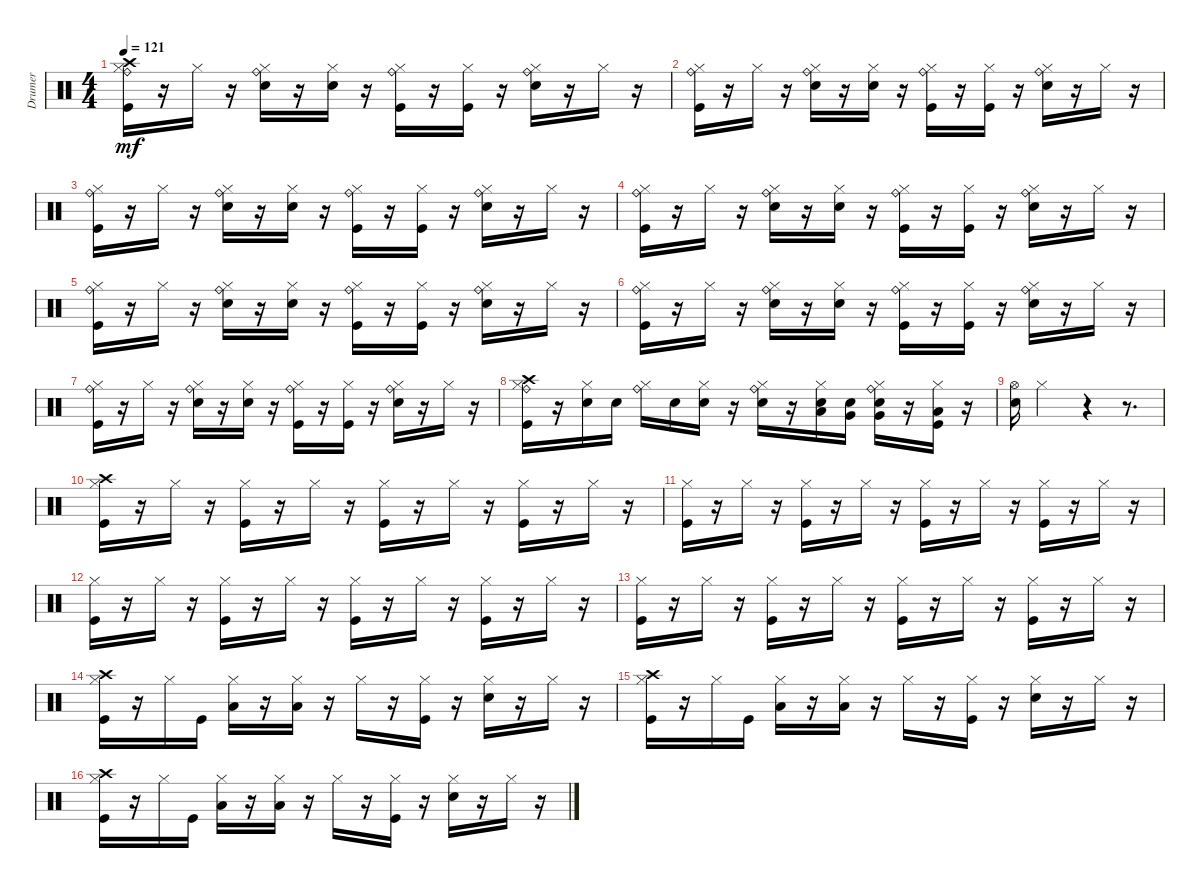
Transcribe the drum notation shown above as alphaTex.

\track ("Drumer" "Drumer") {instrument percussion}
\staff {score}
\articulation defaults
\ts (4 4)
\tempo 121
\clef neutral
\ks c
("Hi-Hat (closed)" "Ride (bell)" "Crash high (hit)" "Kick (hit)").16{dy mf} r.16 "Hi-Hat (closed)".16 r.16 ("Hi-Hat (closed)" "Ride (bell)" "Snare (hit) 2").16 r.16 ("Hi-Hat (closed)" "Snare (hit) 2").16 r.16 ("Hi-Hat (closed)" "Ride (bell)" "Kick (hit)").16 r.16 ("Hi-Hat (closed)" "Kick (hit)").16 r.16 ("Hi-Hat (closed)" "Ride (bell)" "Snare (hit) 2").16 r.16 "Hi-Hat (closed)".16 r.16 |
("Hi-Hat (closed)" "Ride (bell)" "Kick (hit)").16 r.16 "Hi-Hat (closed)".16 r.16 ("Hi-Hat (closed)" "Ride (bell)" "Snare (hit) 2").16 r.16 ("Hi-Hat (closed)" "Snare (hit) 2").16 r.16 ("Hi-Hat (closed)" "Ride (bell)" "Kick (hit)").16 r.16 ("Hi-Hat (closed)" "Kick (hit)").16 r.16 ("Hi-Hat (closed)" "Ride (bell)" "Snare (hit) 2").16 r.16 "Hi-Hat (closed)".16 r.16 |
("Hi-Hat (closed)" "Ride (bell)" "Kick (hit)").16 r.16 "Hi-Hat (closed)".16 r.16 ("Hi-Hat (closed)" "Ride (bell)" "Snare (hit) 2").16 r.16 ("Hi-Hat (closed)" "Snare (hit) 2").16 r.16 ("Hi-Hat (closed)" "Ride (bell)" "Kick (hit)").16 r.16 ("Hi-Hat (closed)" "Kick (hit)").16 r.16 ("Hi-Hat (closed)" "Ride (bell)" "Snare (hit) 2").16 r.16 "Hi-Hat (closed)".16 r.16 |
("Hi-Hat (closed)" "Ride (bell)" "Kick (hit)").16 r.16 "Hi-Hat (closed)".16 r.16 ("Hi-Hat (closed)" "Ride (bell)" "Snare (hit) 2").16 r.16 ("Hi-Hat (closed)" "Snare (hit) 2").16 r.16 ("Hi-Hat (closed)" "Ride (bell)" "Kick (hit)").16 r.16 ("Hi-Hat (closed)" "Kick (hit)").16 r.16 ("Hi-Hat (closed)" "Ride (bell)" "Snare (hit) 2").16 r.16 "Hi-Hat (closed)".16 r.16 |
("Hi-Hat (closed)" "Ride (bell)" "Kick (hit)").16 r.16 "Hi-Hat (closed)".16 r.16 ("Hi-Hat (closed)" "Ride (bell)" "Snare (hit) 2").16 r.16 ("Hi-Hat (closed)" "Snare (hit) 2").16 r.16 ("Hi-Hat (closed)" "Ride (bell)" "Kick (hit)").16 r.16 ("Hi-Hat (closed)" "Kick (hit)").16 r.16 ("Hi-Hat (closed)" "Ride (bell)" "Snare (hit) 2").16 r.16 "Hi-Hat (closed)".16 r.16 |
("Hi-Hat (closed)" "Ride (bell)" "Kick (hit)").16 r.16 "Hi-Hat (closed)".16 r.16 ("Hi-Hat (closed)" "Ride (bell)" "Snare (hit) 2").16 r.16 ("Hi-Hat (closed)" "Snare (hit) 2").16 r.16 ("Hi-Hat (closed)" "Ride (bell)" "Kick (hit)").16 r.16 ("Hi-Hat (closed)" "Kick (hit)").16 r.16 ("Hi-Hat (closed)" "Ride (bell)" "Snare (hit) 2").16 r.16 "Hi-Hat (closed)".16 r.16 |
("Hi-Hat (closed)" "Ride (bell)" "Kick (hit)").16 r.16 "Hi-Hat (closed)".16 r.16 ("Hi-Hat (closed)" "Ride (bell)" "Snare (hit) 2").16 r.16 ("Hi-Hat (closed)" "Snare (hit) 2").16 r.16 ("Hi-Hat (closed)" "Ride (bell)" "Kick (hit)").16 r.16 ("Hi-Hat (closed)" "Kick (hit)").16 r.16 ("Hi-Hat (closed)" "Ride (bell)" "Snare (hit) 2").16 r.16 "Hi-Hat (closed)".16 r.16 |
("Hi-Hat (closed)" "Ride (bell)" "Kick (hit)" "Crash high (hit)").16 r.16 ("Hi-Hat (closed)" "Snare (hit) 2").16 "Snare (hit) 2".16 ("Hi-Hat (closed)" "Ride (bell)").16 "Snare (hit) 2".16 ("Hi-Hat (closed)" "Snare (hit) 2").16 r.16 ("Hi-Hat (closed)" "Ride (bell)" "Snare (hit) 2").16 r.16 ("Low Tom (hit)" "Hi-Hat (closed)" "Snare (hit) 2").16 ("Very Low Tom (hit)" "Snare (hit) 2").16 ("Hi-Hat (closed)" "Ride (bell)" "Snare (hit) 2" "Very Low Tom (hit)").16 r.16 ("Hi-Hat (closed)" "Kick (hit)" "Low Floor Tom (hit)").16 r.16 |
("Hi-Hat (open)" "Snare (hit) 2").16 "Hi-Hat (closed)".2 r.4 r.8{d} |
("Hi-Hat (closed)" "Kick (hit)" "Crash high (hit)").16 r.16 "Hi-Hat (closed)".16 r.16 ("Hi-Hat (closed)" "Kick (hit)").16 r.16 "Hi-Hat (closed)".16 r.16 ("Hi-Hat (closed)" "Kick (hit)").16 r.16 "Hi-Hat (closed)".16 r.16 ("Hi-Hat (closed)" "Kick (hit)").16 r.16 "Hi-Hat (closed)".16 r.16 |
("Hi-Hat (closed)" "Kick (hit)").16 r.16 "Hi-Hat (closed)".16 r.16 ("Hi-Hat (closed)" "Kick (hit)").16 r.16 "Hi-Hat (closed)".16 r.16 ("Hi-Hat (closed)" "Kick (hit)").16 r.16 "Hi-Hat (closed)".16 r.16 ("Hi-Hat (closed)" "Kick (hit)").16 r.16 "Hi-Hat (closed)".16 r.16 |
("Hi-Hat (closed)" "Kick (hit)").16 r.16 "Hi-Hat (closed)".16 r.16 ("Hi-Hat (closed)" "Kick (hit)").16 r.16 "Hi-Hat (closed)".16 r.16 ("Hi-Hat (closed)" "Kick (hit)").16 r.16 "Hi-Hat (closed)".16 r.16 ("Hi-Hat (closed)" "Kick (hit)").16 r.16 "Hi-Hat (closed)".16 r.16 |
("Hi-Hat (closed)" "Kick (hit)").16 r.16 "Hi-Hat (closed)".16 r.16 ("Hi-Hat (closed)" "Kick (hit)").16 r.16 "Hi-Hat (closed)".16 r.16 ("Hi-Hat (closed)" "Kick (hit)").16 r.16 "Hi-Hat (closed)".16 r.16 ("Hi-Hat (closed)" "Kick (hit)").16 r.16 "Hi-Hat (closed)".16 r.16 |
("Hi-Hat (closed)" "Kick (hit)" "Crash high (hit)").16 r.16 "Hi-Hat (closed)".16 "Kick (hit)".16 ("Hi-Hat (closed)" "Low Tom (hit)").16 r.16 ("Hi-Hat (closed)" "Low Floor Tom (hit)").16 r.16 "Hi-Hat (closed)".16 r.16 ("Hi-Hat (closed)" "Kick (hit)").16 r.16 ("Hi-Hat (closed)" "Snare (hit) 2").16 r.16 "Hi-Hat (closed)".16 r.16 |
("Hi-Hat (closed)" "Kick (hit)" "Crash high (hit)").16 r.16 "Hi-Hat (closed)".16 "Kick (hit)".16 ("Hi-Hat (closed)" "Low Tom (hit)").16 r.16 ("Hi-Hat (closed)" "Low Floor Tom (hit)").16 r.16 "Hi-Hat (closed)".16 r.16 ("Hi-Hat (closed)" "Kick (hit)").16 r.16 ("Hi-Hat (closed)" "Snare (hit) 2").16 r.16 "Hi-Hat (closed)".16 r.16 |
("Hi-Hat (closed)" "Kick (hit)" "Crash high (hit)").16 r.16 "Hi-Hat (closed)".16 "Kick (hit)".16 ("Hi-Hat (closed)" "Low Tom (hit)").16 r.16 ("Hi-Hat (closed)" "Low Floor Tom (hit)").16 r.16 "Hi-Hat (closed)".16 r.16 ("Hi-Hat (closed)" "Kick (hit)").16 r.16 ("Hi-Hat (closed)" "Snare (hit) 2").16 r.16 "Hi-Hat (closed)".16 r.16
